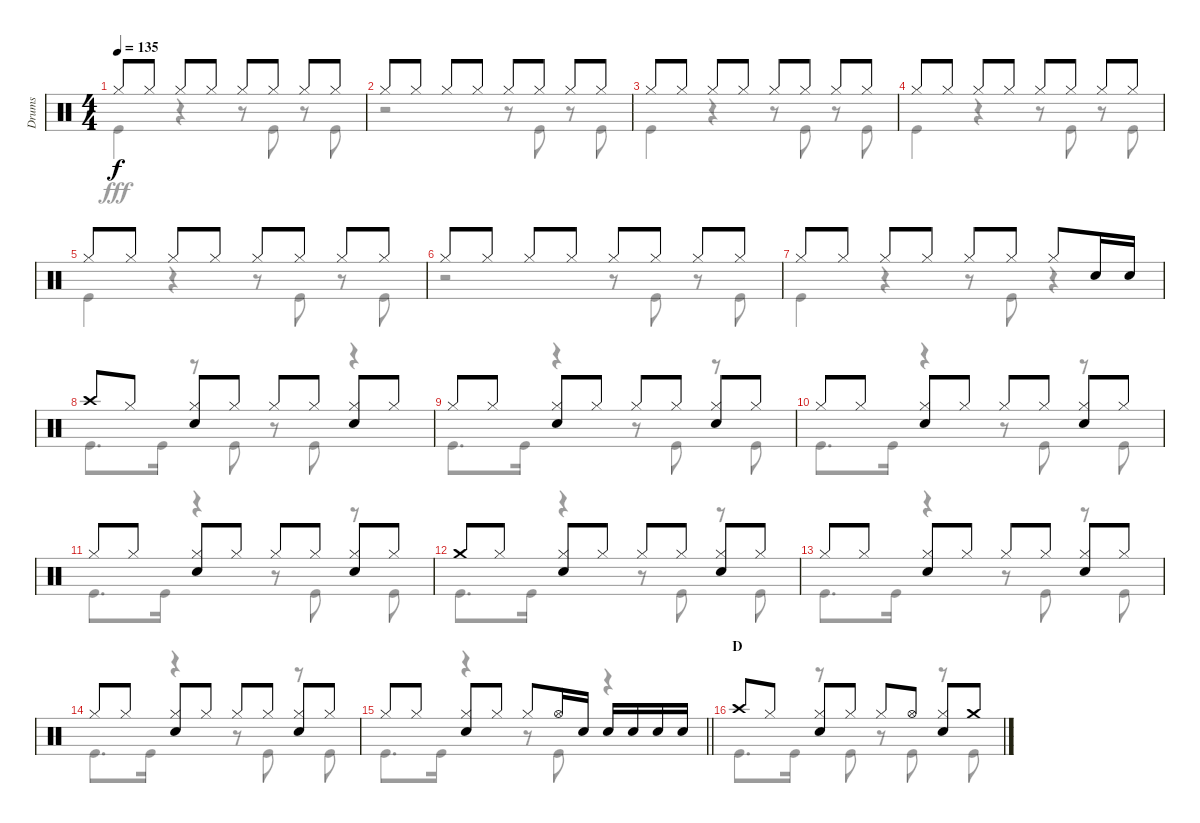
\track ("Drums" "Drums") {instrument percussion}
\staff {score}
\articulation defaults
\voice
\ts (4 4)
\tempo 135
\clef neutral
\ks c "Hi-Hat (closed)".8{dy f} "Hi-Hat (closed)".8 "Hi-Hat (closed)".8 "Hi-Hat (closed)".8 "Hi-Hat (closed)".8 "Hi-Hat (closed)".8 "Hi-Hat (closed)".8 "Hi-Hat (closed)".8
|
"Hi-Hat (closed)".8 "Hi-Hat (closed)".8 "Hi-Hat (closed)".8 "Hi-Hat (closed)".8 "Hi-Hat (closed)".8 "Hi-Hat (closed)".8 "Hi-Hat (closed)".8 "Hi-Hat (closed)".8 |
"Hi-Hat (closed)".8 "Hi-Hat (closed)".8 "Hi-Hat (closed)".8 "Hi-Hat (closed)".8 "Hi-Hat (closed)".8 "Hi-Hat (closed)".8 "Hi-Hat (closed)".8 "Hi-Hat (closed)".8 |
"Hi-Hat (closed)".8 "Hi-Hat (closed)".8 "Hi-Hat (closed)".8 "Hi-Hat (closed)".8 "Hi-Hat (closed)".8 "Hi-Hat (closed)".8 "Hi-Hat (closed)".8 "Hi-Hat (closed)".8 |
"Hi-Hat (closed)".8 "Hi-Hat (closed)".8 "Hi-Hat (closed)".8 "Hi-Hat (closed)".8 "Hi-Hat (closed)".8 "Hi-Hat (closed)".8 "Hi-Hat (closed)".8 "Hi-Hat (closed)".8 |
"Hi-Hat (closed)".8 "Hi-Hat (closed)".8 "Hi-Hat (closed)".8 "Hi-Hat (closed)".8 "Hi-Hat (closed)".8 "Hi-Hat (closed)".8 "Hi-Hat (closed)".8 "Hi-Hat (closed)".8 |
"Hi-Hat (closed)".8 "Hi-Hat (closed)".8 "Hi-Hat (closed)".8 "Hi-Hat (closed)".8 "Hi-Hat (closed)".8 "Hi-Hat (closed)".8 "Hi-Hat (closed)".8 "Snare (hit) 2".16 "Snare (hit) 2".16 |
"Crash high (hit)".8 "Hi-Hat (closed)".8 ("Hi-Hat (closed)" "Snare (hit) 2").8 "Hi-Hat (closed)".8 "Hi-Hat (closed)".8 "Hi-Hat (closed)".8 ("Hi-Hat (closed)" "Snare (hit) 2").8 "Hi-Hat (closed)".8 |
"Hi-Hat (closed)".8 "Hi-Hat (closed)".8 ("Hi-Hat (closed)" "Snare (hit) 2").8 "Hi-Hat (closed)".8 "Hi-Hat (closed)".8 "Hi-Hat (closed)".8 ("Hi-Hat (closed)" "Snare (hit) 2").8 "Hi-Hat (closed)".8 |
"Hi-Hat (closed)".8 "Hi-Hat (closed)".8 ("Hi-Hat (closed)" "Snare (hit) 2").8 "Hi-Hat (closed)".8 "Hi-Hat (closed)".8 "Hi-Hat (closed)".8 ("Hi-Hat (closed)" "Snare (hit) 2").8 "Hi-Hat (closed)".8 |
"Hi-Hat (closed)".8 "Hi-Hat (closed)".8 ("Hi-Hat (closed)" "Snare (hit) 2").8 "Hi-Hat (closed)".8 "Hi-Hat (closed)".8 "Hi-Hat (closed)".8 ("Hi-Hat (closed)" "Snare (hit) 2").8 "Hi-Hat (closed)".8 |
"Crash medium (hit)".8 "Hi-Hat (closed)".8 ("Hi-Hat (closed)" "Snare (hit) 2").8 "Hi-Hat (closed)".8 "Hi-Hat (closed)".8 "Hi-Hat (closed)".8 ("Hi-Hat (closed)" "Snare (hit) 2").8 "Hi-Hat (closed)".8 |
"Hi-Hat (closed)".8 "Hi-Hat (closed)".8 ("Hi-Hat (closed)" "Snare (hit) 2").8 "Hi-Hat (closed)".8 "Hi-Hat (closed)".8 "Hi-Hat (closed)".8 ("Hi-Hat (closed)" "Snare (hit) 2").8 "Hi-Hat (closed)".8 |
"Hi-Hat (closed)".8 "Hi-Hat (closed)".8 ("Hi-Hat (closed)" "Snare (hit) 2").8 "Hi-Hat (closed)".8 "Hi-Hat (closed)".8 "Hi-Hat (closed)".8 ("Hi-Hat (closed)" "Snare (hit) 2").8 "Hi-Hat (closed)".8 |
\barLineRight lightlight "Hi-Hat (closed)".8 "Hi-Hat (closed)".8
("Hi-Hat (closed)" "Snare (hit) 2").8 "Hi-Hat (closed)".8 "Hi-Hat (closed)".8 "Hi-Hat (open)".16 "Snare (hit) 2".16 "Snare (hit) 2".16 "Snare (hit) 2".16 "Snare (hit) 2".16 "Snare (hit) 2".16 |
\section ("" "D")
"Crash high (hit)".8 "Hi-Hat (closed)".8 ("Hi-Hat (closed)" "Snare (hit) 2").8 "Hi-Hat (closed)".8 "Hi-Hat (closed)".8 "Hi-Hat (open)".8 ("Hi-Hat (closed)" "Snare (hit) 2").8 "Crash medium (hit)".8
\voice
\clef neutral
\ottava regular
\simile none
\ks c "Kick (hit)".4{dy fff}
r.4 r.8 "Kick (hit)".8 r.8 "Kick (hit)".8 |
r.2 r.8 "Kick (hit)".8 r.8 "Kick (hit)".8 |
"Kick (hit)".4 r.4 r.8 "Kick (hit)".8 r.8 "Kick (hit)".8 |
"Kick (hit)".4 r.4 r.8 "Kick (hit)".8 r.8 "Kick (hit)".8 |
"Kick (hit)".4 r.4 r.8 "Kick (hit)".8 r.8 "Kick (hit)".8 |
r.2 r.8 "Kick (hit)".8 r.8 "Kick (hit)".8 |
"Kick (hit)".4 r.4 r.8 "Kick (hit)".8 r.4 |
"Kick (hit)".8{d} "Kick (hit)".16 r.8 "Kick (hit)".8 r.8 "Kick (hit)".8 r.4 |
"Kick (hit)".8{d} "Kick (hit)".16 r.4 r.8 "Kick (hit)".8 r.8 "Kick (hit)".8 |
"Kick (hit)".8{d} "Kick (hit)".16 r.4 r.8 "Kick (hit)".8 r.8 "Kick (hit)".8 |
"Kick (hit)".8{d} "Kick (hit)".16 r.4 r.8 "Kick (hit)".8 r.8 "Kick (hit)".8 |
"Kick (hit)".8{d} "Kick (hit)".16 r.4 r.8 "Kick (hit)".8 r.8 "Kick (hit)".8 |
"Kick (hit)".8{d} "Kick (hit)".16 r.4 r.8 "Kick (hit)".8 r.8 "Kick (hit)".8 |
"Kick (hit)".8{d} "Kick (hit)".16 r.4 r.8 "Kick (hit)".8 r.8 "Kick (hit)".8 |
\barLineRight lightlight "Kick (hit)".8{d} "Kick (hit)".16
r.4 r.8 "Kick (hit)".8 r.4 |
"Kick (hit)".8{d} "Kick (hit)".16 r.8 "Kick (hit)".8 r.8 "Kick (hit)".8 r.8 "Kick (hit)".8
